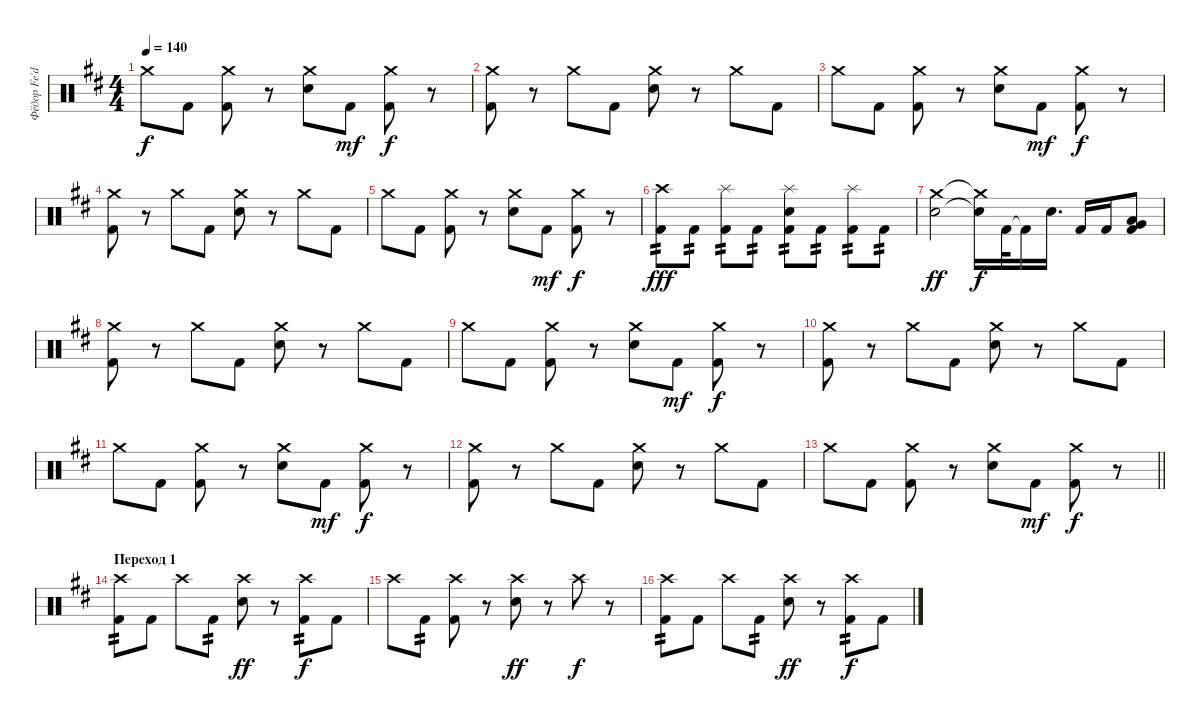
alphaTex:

\track ("Фёдор Fe'dor Локшин" "Фёдор Fe'd") {instrument percussion}
\staff {score}
\articulation defaults
\ts (4 4)
\tempo 140
\clef neutral
\ks bminor "Crash medium (hit)".8{dy f} "Kick (hit) 2".8
("Crash medium (hit)" "Kick (hit) 2").8 r.8 ("Crash medium (hit)" "Snare (hit) 2").8 "Kick (hit) 2".8{dy mf} ("Crash medium (hit)" "Kick (hit) 2").8{dy f} r.8 |
("Crash medium (hit)" "Kick (hit) 2").8 r.8 "Crash medium (hit)".8 "Kick (hit) 2".8 ("Crash medium (hit)" "Snare (hit) 2").8 r.8 "Crash medium (hit)".8 "Kick (hit) 2".8 |
"Crash medium (hit)".8 "Kick (hit) 2".8 ("Crash medium (hit)" "Kick (hit) 2").8 r.8 ("Crash medium (hit)" "Snare (hit) 2").8 "Kick (hit) 2".8{dy mf} ("Crash medium (hit)" "Kick (hit) 2").8{dy f} r.8 |
("Crash medium (hit)" "Kick (hit) 2").8 r.8 "Crash medium (hit)".8 "Kick (hit) 2".8 ("Crash medium (hit)" "Snare (hit) 2").8 r.8 "Crash medium (hit)".8 "Kick (hit) 2".8 |
"Crash medium (hit)".8 "Kick (hit) 2".8 ("Crash medium (hit)" "Kick (hit) 2").8 r.8 ("Crash medium (hit)" "Snare (hit) 2").8 "Kick (hit) 2".8{dy mf} ("Crash medium (hit)" "Kick (hit) 2").8{dy f} r.8 |
("Crash high (hit)" "Kick (hit) 2").8{tp 2 dy fff} "Kick (hit) 2".8{tp 2} ("Splash (hit)" "Kick (hit) 2").8{tp 2} "Kick (hit) 2".8{tp 2} ("Splash (hit)" "Snare (hit) 2" "Kick (hit) 2").8{tp 2} "Kick (hit) 2".8{tp 2} ("Splash (hit)" "Kick (hit) 2").8{tp 2} "Kick (hit) 2".8{tp 2} |
("Crash medium (hit)" "Snare (hit) 2").2{dy ff} ("Crash medium (hit)"{t} "Snare (hit) 2"{t}).16{dy f} "Kick (hit) 2".32 "Kick (hit) 2"{t}.16 "Snare (hit) 2".16{d} "Kick (hit) 2".16 "Kick (hit) 2".16 ("Very Low Tom (hit)" "Low Floor Tom (hit)" "Kick (hit) 2").8 |
("Crash medium (hit)" "Kick (hit) 2").8 r.8 "Crash medium (hit)".8 "Kick (hit) 2".8 ("Crash medium (hit)" "Snare (hit) 2").8 r.8 "Crash medium (hit)".8 "Kick (hit) 2".8 |
"Crash medium (hit)".8 "Kick (hit) 2".8 ("Crash medium (hit)" "Kick (hit) 2").8 r.8 ("Crash medium (hit)" "Snare (hit) 2").8 "Kick (hit) 2".8{dy mf} ("Crash medium (hit)" "Kick (hit) 2").8{dy f} r.8 |
("Crash medium (hit)" "Kick (hit) 2").8 r.8 "Crash medium (hit)".8 "Kick (hit) 2".8 ("Crash medium (hit)" "Snare (hit) 2").8 r.8 "Crash medium (hit)".8 "Kick (hit) 2".8 |
"Crash medium (hit)".8 "Kick (hit) 2".8 ("Crash medium (hit)" "Kick (hit) 2").8 r.8 ("Crash medium (hit)" "Snare (hit) 2").8 "Kick (hit) 2".8{dy mf} ("Crash medium (hit)" "Kick (hit) 2").8{dy f} r.8 |
("Crash medium (hit)" "Kick (hit) 2").8 r.8 "Crash medium (hit)".8 "Kick (hit) 2".8 ("Crash medium (hit)" "Snare (hit) 2").8 r.8 "Crash medium (hit)".8 "Kick (hit) 2".8 |
\barLineRight lightlight "Crash medium (hit)".8 "Kick (hit) 2".8
("Crash medium (hit)" "Kick (hit) 2").8 r.8 ("Crash medium (hit)" "Snare (hit) 2").8 "Kick (hit) 2".8{dy mf} ("Crash medium (hit)" "Kick (hit) 2").8{dy f} r.8 |
\section ("" "Переход 1")
("Crash high (hit)" "Kick (hit) 2").8{tp 2} "Kick (hit) 2".8 "Crash high (hit)".8 "Kick (hit) 2".8{tp 2} ("Crash high (hit)" "Electric Snare (hit)").8{dy ff} r.8 ("Crash high (hit)" "Kick (hit) 2").8{tp 2 dy f} "Kick (hit) 2".8 |
"Crash high (hit)".8 "Kick (hit) 2".8{tp 2} ("Crash high (hit)" "Kick (hit) 2").8 r.8 ("Crash high (hit)" "Electric Snare (hit)").8{dy ff} r.8 "Crash high (hit)".8{dy f} r.8 |
("Crash high (hit)" "Kick (hit) 2").8{tp 2} "Kick (hit) 2".8 "Crash high (hit)".8 "Kick (hit) 2".8{tp 2} ("Crash high (hit)" "Electric Snare (hit)").8{dy ff} r.8 ("Crash high (hit)" "Kick (hit) 2").8{tp 2 dy f} "Kick (hit) 2".8
